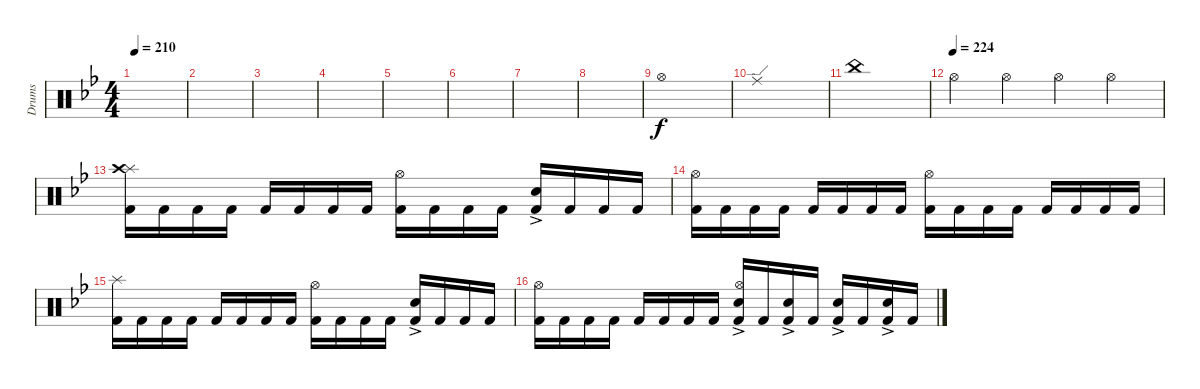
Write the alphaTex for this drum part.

\defaultSystemsLayout 4
\bracketExtendMode groupsimilarinstruments
\otherSystemsTrackNameOrientation horizontal
\track ("Drumkit" "Drums") {instrument percussion}
\staff {score}
\articulation defaults
\ts (4 4)
\tempo 210
\clef neutral
\scale
0.333333
\ks bb
|
\scale
0.333333 |
\scale
0.333333 |
\scale
0.333333 |
\scale
0.333333 |
\scale
0.333333 |
\scale
0.333333 |
\scale
0.333333 |
\scale
0.333333 "Hi-Hat (open)"{acc forcenatural}.1{beam Down} |
\scale
0.333333 "Ride (edge)"{acc forcenatural}.1{beam Down} |
\scale
0.333333 "China (hit)"{acc forcenatural}.1{beam Down} |
\tempo 224
\scale
0.333333 "Hi-Hat (open)"{acc forcenatural}.4{dy f beam Down} "Hi-Hat (open)"{acc forcenatural}.4{beam Down} "Hi-Hat (open)"{acc forcenatural}.4{beam Down} "Hi-Hat (open)"{acc forcenatural}.4{beam Down} |
\scale
0.333333 ("Splash (hit)"{acc forcenatural} "Crash high (hit)"{acc forcenatural} "Kick (hit) 2"{acc forcenatural}).16{beam Down} "Kick (hit) 2"{acc forcenatural}.16{beam Down} "Kick (hit) 2"{acc forcenatural}.16{beam Down} "Kick (hit) 2"{acc forcenatural}.16{beam Down} "Kick (hit) 2"{acc forcenatural}.16{beam Up} "Kick (hit) 2"{acc forcenatural}.16{beam Up} "Kick (hit) 2"{acc forcenatural}.16{beam Up} "Kick (hit) 2"{acc forcenatural}.16{beam Up} ("Kick (hit) 2"{acc forcenatural} "Hi-Hat (open)"{acc forcenatural}).16{beam Down} "Kick (hit) 2"{acc forcenatural}.16{beam Down} "Kick (hit) 2"{acc forcenatural}.16{beam Down} "Kick (hit) 2"{acc forcenatural}.16{beam Down} ("Kick (hit) 2"{acc forcenatural} "Snare (hit) 2"{ac acc forcenatural}).16{beam Up} "Kick (hit) 2"{acc forcenatural}.16{beam Up} "Kick (hit) 2"{acc forcenatural}.16{beam Up} "Kick (hit) 2"{acc forcenatural}.16{beam Up} |
\scale
0.333333 ("Hi-Hat (open)"{acc forcenatural} "Kick (hit) 2"{acc forcenatural}).16{beam Down} "Kick (hit) 2"{acc forcenatural}.16{beam Down} "Kick (hit) 2"{acc forcenatural}.16{beam Down} "Kick (hit) 2"{acc forcenatural}.16{beam Down} "Kick (hit) 2"{acc forcenatural}.16{beam Up} "Kick (hit) 2"{acc forcenatural}.16{beam Up} "Kick (hit) 2"{acc forcenatural}.16{beam Up} "Kick (hit) 2"{acc forcenatural}.16{beam Up} ("Kick (hit) 2"{acc forcenatural} "Hi-Hat (open)"{acc forcenatural}).16{beam Down} "Kick (hit) 2"{acc forcenatural}.16{beam Down} "Kick (hit) 2"{acc forcenatural}.16{beam Down} "Kick (hit) 2"{acc forcenatural}.16{beam Down} "Kick (hit) 2"{acc forcenatural}.16{beam Up} "Kick (hit) 2"{acc forcenatural}.16{beam Up} "Kick (hit) 2"{acc forcenatural}.16{beam Up} "Kick (hit) 2"{acc forcenatural}.16{beam Up} |
\scale
0.333333 ("Splash (hit)"{acc forcenatural} "Kick (hit) 2"{acc forcenatural}).16{beam Down} "Kick (hit) 2"{acc forcenatural}.16{beam Down} "Kick (hit) 2"{acc forcenatural}.16{beam Down} "Kick (hit) 2"{acc forcenatural}.16{beam Down} "Kick (hit) 2"{acc forcenatural}.16{beam Up} "Kick (hit) 2"{acc forcenatural}.16{beam Up} "Kick (hit) 2"{acc forcenatural}.16{beam Up} "Kick (hit) 2"{acc forcenatural}.16{beam Up} ("Kick (hit) 2"{acc forcenatural} "Hi-Hat (open)"{acc forcenatural}).16{beam Down} "Kick (hit) 2"{acc forcenatural}.16{beam Down} "Kick (hit) 2"{acc forcenatural}.16{beam Down} "Kick (hit) 2"{acc forcenatural}.16{beam Down} ("Kick (hit) 2"{acc forcenatural} "Snare (hit) 2"{ac acc forcenatural}).16{beam Up} "Kick (hit) 2"{acc forcenatural}.16{beam Up} "Kick (hit) 2"{acc forcenatural}.16{beam Up} "Kick (hit) 2"{acc forcenatural}.16{beam Up} |
\scale
0.333333 ("Hi-Hat (open)"{acc forcenatural} "Kick (hit) 2"{acc forcenatural}).16{beam Down} "Kick (hit) 2"{acc forcenatural}.16{beam Down} "Kick (hit) 2"{acc forcenatural}.16{beam Down} "Kick (hit) 2"{acc forcenatural}.16{beam Down} "Kick (hit) 2"{acc forcenatural}.16{beam Up} "Kick (hit) 2"{acc forcenatural}.16{beam Up} "Kick (hit) 2"{acc forcenatural}.16{beam Up} "Kick (hit) 2"{acc forcenatural}.16{beam Up} ("Kick (hit) 2"{acc forcenatural} "Hi-Hat (open)"{acc forcenatural} "Snare (hit) 2"{ac acc forcenatural}).16{beam Up} "Kick (hit) 2"{acc forcenatural}.16{beam Up} ("Kick (hit) 2"{acc forcenatural} "Snare (hit) 2"{ac acc forcenatural}).16{beam Up} "Kick (hit) 2"{acc forcenatural}.16{beam Up} ("Kick (hit) 2"{acc forcenatural} "Snare (hit) 2"{ac acc forcenatural}).16{beam Up} "Kick (hit) 2"{acc forcenatural}.16{beam Up} ("Kick (hit) 2"{acc forcenatural} "Snare (hit) 2"{ac acc forcenatural}).16{beam Up} "Kick (hit) 2"{acc forcenatural}.16{beam Up}
